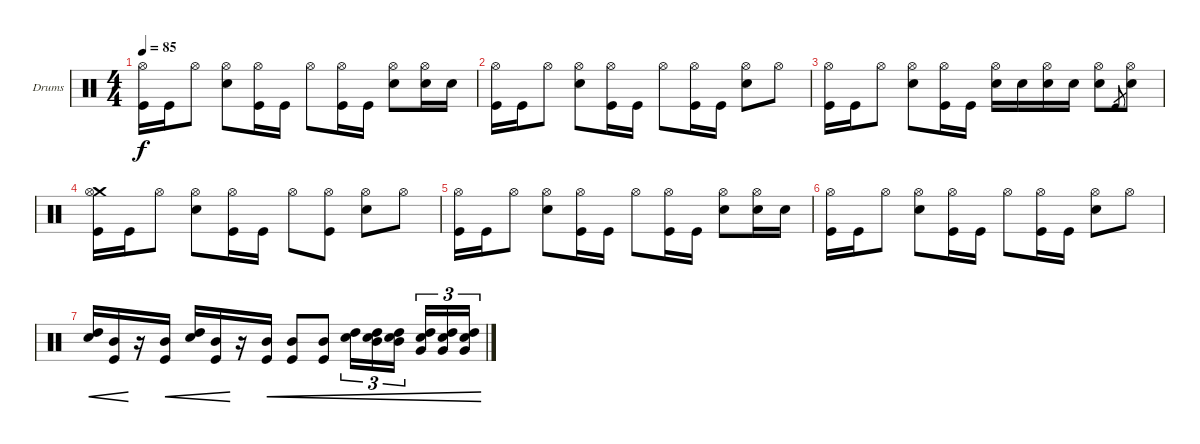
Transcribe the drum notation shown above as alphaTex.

\defaultSystemsLayout 4
\bracketExtendMode groupsimilarinstruments
\firstSystemTrackNameOrientation horizontal
\otherSystemsTrackNameOrientation horizontal
\track ("Drumkit" "Drums") {instrument percussion}
\staff {score}
\articulation defaults
\ts (4 4)
\tempo 85
\clef neutral
\ks c
("Kick (hit)" "Hi-Hat (open)").16{dy f} "Kick (hit)".16 "Hi-Hat (open)".8 ("Snare (hit) 2" "Hi-Hat (open)").8 ("Kick (hit)" "Hi-Hat (open)").16 "Kick (hit)".16 "Hi-Hat (open)".8 ("Kick (hit)" "Hi-Hat (open)").16 "Kick (hit)".16 ("Snare (hit) 2" "Hi-Hat (open)").8 ("Hi-Hat (open)" "Snare (hit) 2").16 "Snare (hit) 2".16 |
("Kick (hit)" "Hi-Hat (open)").16 "Kick (hit)".16 "Hi-Hat (open)".8 ("Snare (hit) 2" "Hi-Hat (open)").8 ("Kick (hit)" "Hi-Hat (open)").16 "Kick (hit)".16 "Hi-Hat (open)".8 ("Kick (hit)" "Hi-Hat (open)").16 "Kick (hit)".16 ("Snare (hit) 2" "Hi-Hat (open)").8 "Hi-Hat (open)".8 |
("Kick (hit)" "Hi-Hat (open)").16 "Kick (hit)".16 "Hi-Hat (open)".8 ("Snare (hit) 2" "Hi-Hat (open)").8 ("Kick (hit)" "Hi-Hat (open)").16 "Kick (hit)".16 ("Snare (hit) 2" "Hi-Hat (open)").16 "Snare (hit) 2".16 ("Snare (hit) 2" "Hi-Hat (open)").16 "Snare (hit) 2".16 ("Snare (hit) 2" "Hi-Hat (open)").8 "Kick (hit)".8{gr} ("Snare (hit) 2" "Hi-Hat (open)").8 |
("Kick (hit)" "Crash medium (hit)" "Hi-Hat (open)").16 "Kick (hit)".16 "Hi-Hat (open)".8 ("Snare (hit) 2" "Hi-Hat (open)").8 ("Kick (hit)" "Hi-Hat (open)").16 "Kick (hit)".16 "Hi-Hat (open)".8 ("Kick (hit)" "Hi-Hat (open)").8 ("Snare (hit) 2" "Hi-Hat (open)").8 "Hi-Hat (open)".8 |
("Kick (hit)" "Hi-Hat (open)").16 "Kick (hit)".16 "Hi-Hat (open)".8 ("Snare (hit) 2" "Hi-Hat (open)").8 ("Kick (hit)" "Hi-Hat (open)").16 "Kick (hit)".16 "Hi-Hat (open)".8 ("Kick (hit)" "Hi-Hat (open)").16 "Kick (hit)".16 ("Snare (hit) 2" "Hi-Hat (open)").8 ("Hi-Hat (open)" "Snare (hit) 2").16 "Snare (hit) 2".16 |
("Kick (hit)" "Hi-Hat (open)").16 "Kick (hit)".16 "Hi-Hat (open)".8 ("Snare (hit) 2" "Hi-Hat (open)").8 ("Kick (hit)" "Hi-Hat (open)").16 "Kick (hit)".16 "Hi-Hat (open)".8 ("Kick (hit)" "Hi-Hat (open)").16 "Kick (hit)".16 ("Snare (hit) 2" "Hi-Hat (open)").8 "Hi-Hat (open)".8 |
("Snare (hit) 2" "High Tom (hit)").16{cre} ("Kick (hit)" "Mid Tom (hit)").16{cre} r.16 ("Kick (hit)" "Mid Tom (hit)").16{cre} ("Snare (hit) 2" "High Tom (hit)").16{cre} ("Kick (hit)" "Mid Tom (hit)").16{cre} r.16 ("Kick (hit)" "Mid Tom (hit)").16{cre} ("Kick (hit)" "Mid Tom (hit)").8{cre} ("Kick (hit)" "Mid Tom (hit)").8{cre} ("Snare (hit) 2" "High Tom (hit)").16{tu (3 2) cre} ("Snare (hit) 2" "High Tom (hit)" "Mid Tom (hit)").16{tu (3 2) cre} ("Snare (hit) 2" "High Tom (hit)" "Mid Tom (hit)").16{tu (3 2) cre} ("Snare (hit) 2" "High Tom (hit)" "Very Low Tom (hit)").16{tu (3 2) cre} ("High Tom (hit)" "Snare (hit) 2" "Very Low Tom (hit)").16{tu (3 2) cre} ("High Tom (hit)" "Snare (hit) 2" "Very Low Tom (hit)").16{tu (3 2) cre}
